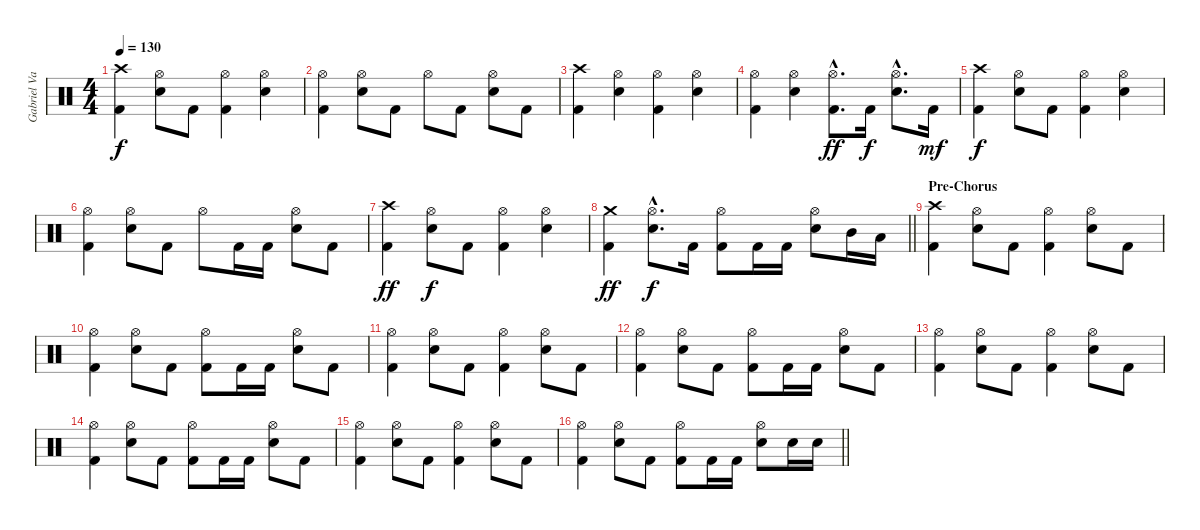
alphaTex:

\track ("Gabriel Valerio" "Gabriel Va") {instrument percussion}
\staff {score}
\articulation defaults
\ts (4 4)
\tempo 130
\clef neutral
\ks c
("Crash high (hit)" "Kick (hit) 2").4{dy f} ("Hi-Hat (open)" "Snare (hit) 2").8 "Kick (hit) 2".8 ("Hi-Hat (open)" "Kick (hit) 2").4 ("Hi-Hat (open)" "Snare (hit) 2").4 |
("Hi-Hat (open)" "Kick (hit) 2").4 ("Hi-Hat (open)" "Snare (hit) 2").8 "Kick (hit) 2".8 "Hi-Hat (open)".8 "Kick (hit) 2".8 ("Hi-Hat (open)" "Snare (hit) 2").8 "Kick (hit) 2".8 |
("Crash high (hit)" "Kick (hit) 2").4 ("Hi-Hat (open)" "Snare (hit) 2").4 ("Hi-Hat (open)" "Kick (hit) 2").4 ("Hi-Hat (open)" "Snare (hit) 2").4 |
("Hi-Hat (open)" "Kick (hit) 2").4 ("Hi-Hat (open)" "Snare (hit) 2").4 ("Hi-Hat (open)"{hac} "Kick (hit) 2"{hac}).8{d dy ff} "Kick (hit) 2".16{dy f} ("Hi-Hat (open)"{hac} "Snare (hit) 2"{hac}).8{d} "Kick (hit) 2".16{dy mf} |
("Crash high (hit)" "Kick (hit) 2").4{dy f} ("Hi-Hat (open)" "Snare (hit) 2").8 "Kick (hit) 2".8 ("Hi-Hat (open)" "Kick (hit) 2").4 ("Hi-Hat (open)" "Snare (hit) 2").4 |
("Hi-Hat (open)" "Kick (hit) 2").4 ("Hi-Hat (open)" "Snare (hit) 2").8 "Kick (hit) 2".8 "Hi-Hat (open)".8 "Kick (hit) 2".16 "Kick (hit) 2".16 ("Hi-Hat (open)" "Snare (hit) 2").8 "Kick (hit) 2".8 |
("Crash high (hit)" "Kick (hit) 2").4{dy ff} ("Hi-Hat (open)" "Snare (hit) 2").8{dy f} "Kick (hit) 2".8 ("Hi-Hat (open)" "Kick (hit) 2").4 ("Hi-Hat (open)" "Snare (hit) 2").4 |
\barLineRight lightlight
("Crash medium (hit)" "Kick (hit) 2").4{dy ff} ("Hi-Hat (open)"{hac} "Snare (hit) 2"{hac}).8{d dy f} "Kick (hit) 2".16 ("Hi-Hat (open)" "Kick (hit) 2").8 "Kick (hit) 2".16 "Kick (hit) 2".16 ("Hi-Hat (open)" "Snare (hit) 2").8 "Mid Tom (hit)".16 "Low Tom (hit)".16 |
\section ("" "Pre-Chorus")
("Crash high (hit)" "Kick (hit) 2").4 ("Hi-Hat (open)" "Snare (hit) 2").8 "Kick (hit) 2".8 ("Hi-Hat (open)" "Kick (hit) 2").4 ("Hi-Hat (open)" "Snare (hit) 2").8 "Kick (hit) 2".8 |
("Hi-Hat (open)" "Kick (hit) 2").4 ("Hi-Hat (open)" "Snare (hit) 2").8 "Kick (hit) 2".8 ("Hi-Hat (open)" "Kick (hit) 2").8 "Kick (hit) 2".16 "Kick (hit) 2".16 ("Hi-Hat (open)" "Snare (hit) 2").8 "Kick (hit) 2".8 |
("Hi-Hat (open)" "Kick (hit) 2").4 ("Hi-Hat (open)" "Snare (hit) 2").8 "Kick (hit) 2".8 ("Hi-Hat (open)" "Kick (hit) 2").4 ("Hi-Hat (open)" "Snare (hit) 2").8 "Kick (hit) 2".8 |
("Hi-Hat (open)" "Kick (hit) 2").4 ("Hi-Hat (open)" "Snare (hit) 2").8 "Kick (hit) 2".8 ("Hi-Hat (open)" "Kick (hit) 2").8 "Kick (hit) 2".16 "Kick (hit) 2".16 ("Hi-Hat (open)" "Snare (hit) 2").8 "Kick (hit) 2".8 |
("Hi-Hat (open)" "Kick (hit) 2").4 ("Hi-Hat (open)" "Snare (hit) 2").8 "Kick (hit) 2".8 ("Hi-Hat (open)" "Kick (hit) 2").4 ("Hi-Hat (open)" "Snare (hit) 2").8 "Kick (hit) 2".8 |
("Hi-Hat (open)" "Kick (hit) 2").4 ("Hi-Hat (open)" "Snare (hit) 2").8 "Kick (hit) 2".8 ("Hi-Hat (open)" "Kick (hit) 2").8 "Kick (hit) 2".16 "Kick (hit) 2".16 ("Hi-Hat (open)" "Snare (hit) 2").8 "Kick (hit) 2".8 |
("Hi-Hat (open)" "Kick (hit) 2").4 ("Hi-Hat (open)" "Snare (hit) 2").8 "Kick (hit) 2".8 ("Hi-Hat (open)" "Kick (hit) 2").4 ("Hi-Hat (open)" "Snare (hit) 2").8 "Kick (hit) 2".8 |
\barLineRight lightlight
("Hi-Hat (open)" "Kick (hit) 2").4 ("Hi-Hat (open)" "Snare (hit) 2").8 "Kick (hit) 2".8 ("Hi-Hat (open)" "Kick (hit) 2").8 "Kick (hit) 2".16 "Kick (hit) 2".16 ("Hi-Hat (open)" "Snare (hit) 2").8 "Snare (hit) 2".16 "Snare (hit) 2".16
